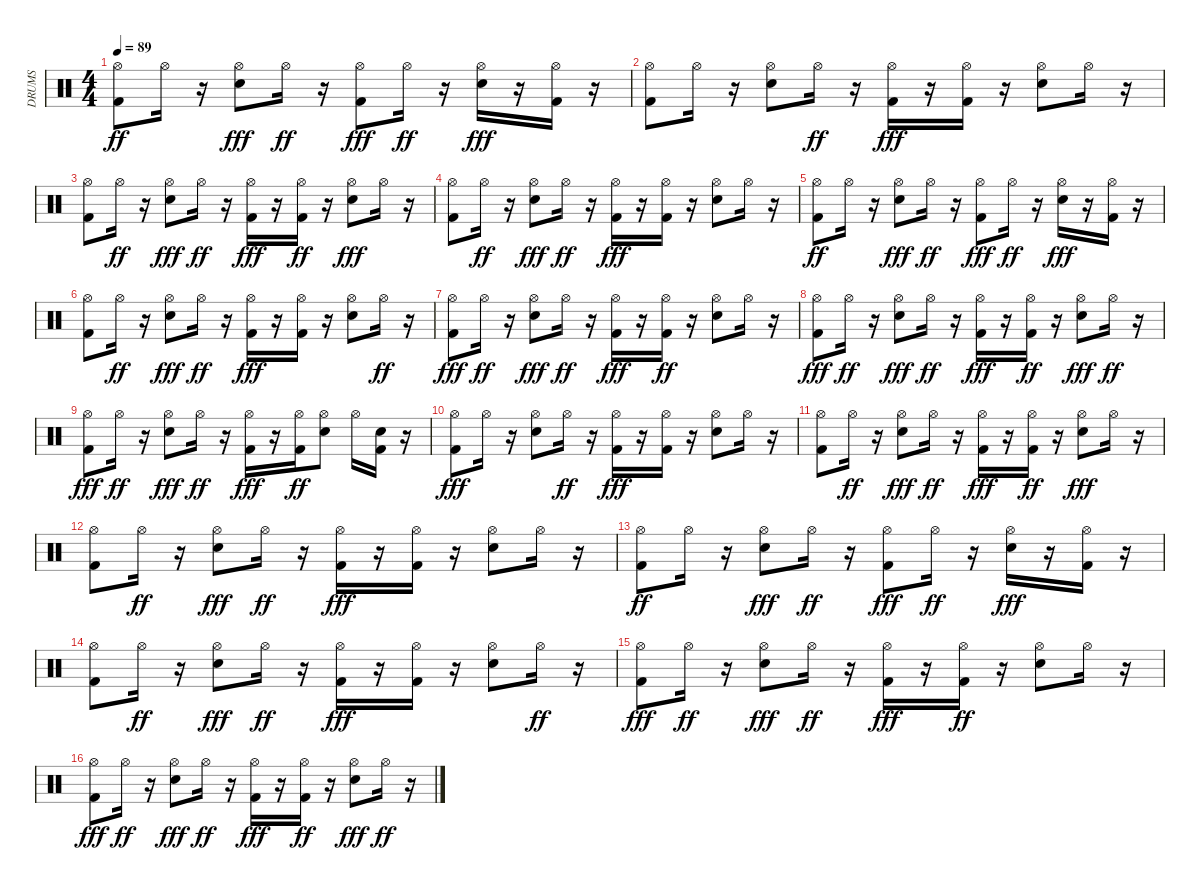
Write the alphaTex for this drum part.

\track ("DRUMS" "DRUMS") {instrument percussion}
\staff {score}
\articulation defaults
\ts (4 4)
\tempo 89
\clef neutral
\ks c
("Hi-Hat (open)" "Kick (hit) 2").8{dy ff} "Hi-Hat (open)".16 r.16 ("Electric Snare (hit)" "Hi-Hat (open)").8{dy fff} "Hi-Hat (open)".16{dy ff} r.16 ("Hi-Hat (open)" "Kick (hit) 2").8{dy fff} "Hi-Hat (open)".16{dy ff} r.16 ("Electric Snare (hit)" "Hi-Hat (open)").16{dy fff} r.16 ("Hi-Hat (open)" "Kick (hit) 2").16 r.16 |
("Hi-Hat (open)" "Kick (hit) 2").8 "Hi-Hat (open)".16 r.16 ("Electric Snare (hit)" "Hi-Hat (open)").8 "Hi-Hat (open)".16{dy ff} r.16 ("Hi-Hat (open)" "Kick (hit) 2").16{dy fff} r.16 ("Kick (hit) 2" "Hi-Hat (open)").16 r.16 ("Hi-Hat (open)" "Electric Snare (hit)").8 "Hi-Hat (open)".16 r.16 |
("Hi-Hat (open)" "Kick (hit) 2").8 "Hi-Hat (open)".16{dy ff} r.16 ("Hi-Hat (open)" "Electric Snare (hit)").8{dy fff} "Hi-Hat (open)".16{dy ff} r.16 ("Hi-Hat (open)" "Kick (hit) 2").16{dy fff} r.16 ("Kick (hit) 2" "Hi-Hat (open)").16{dy ff} r.16 ("Electric Snare (hit)" "Hi-Hat (open)").8{dy fff} "Hi-Hat (open)".16 r.16 |
("Hi-Hat (open)" "Kick (hit) 2").8 "Hi-Hat (open)".16{dy ff} r.16 ("Hi-Hat (open)" "Electric Snare (hit)").8{dy fff} "Hi-Hat (open)".16{dy ff} r.16 ("Hi-Hat (open)" "Kick (hit) 2").16{dy fff} r.16 ("Kick (hit) 2" "Hi-Hat (open)").16 r.16 ("Hi-Hat (open)" "Electric Snare (hit)").8 "Hi-Hat (open)".16 r.16 |
("Hi-Hat (open)" "Kick (hit) 2").8{dy ff} "Hi-Hat (open)".16 r.16 ("Electric Snare (hit)" "Hi-Hat (open)").8{dy fff} "Hi-Hat (open)".16{dy ff} r.16 ("Hi-Hat (open)" "Kick (hit) 2").8{dy fff} "Hi-Hat (open)".16{dy ff} r.16 ("Electric Snare (hit)" "Hi-Hat (open)").16{dy fff} r.16 ("Hi-Hat (open)" "Kick (hit) 2").16 r.16 |
("Hi-Hat (open)" "Kick (hit) 2").8 "Hi-Hat (open)".16{dy ff} r.16 ("Hi-Hat (open)" "Electric Snare (hit)").8{dy fff} "Hi-Hat (open)".16{dy ff} r.16 ("Hi-Hat (open)" "Kick (hit) 2").16{dy fff} r.16 ("Hi-Hat (open)" "Kick (hit) 2").16 r.16 ("Hi-Hat (open)" "Electric Snare (hit)").8 "Hi-Hat (open)".16{dy ff} r.16 |
("Hi-Hat (open)" "Kick (hit) 2").8{dy fff} "Hi-Hat (open)".16{dy ff} r.16 ("Electric Snare (hit)" "Hi-Hat (open)").8{dy fff} "Hi-Hat (open)".16{dy ff} r.16 ("Hi-Hat (open)" "Kick (hit) 2").16{dy fff} r.16 ("Hi-Hat (open)" "Kick (hit) 2").16{dy ff} r.16 ("Electric Snare (hit)" "Hi-Hat (open)").8 "Hi-Hat (open)".16 r.16 |
("Hi-Hat (open)" "Kick (hit) 2").8{dy fff} "Hi-Hat (open)".16{dy ff} r.16 ("Electric Snare (hit)" "Hi-Hat (open)").8{dy fff} "Hi-Hat (open)".16{dy ff} r.16 ("Hi-Hat (open)" "Kick (hit) 2").16{dy fff} r.16 ("Hi-Hat (open)" "Kick (hit) 2").16{dy ff} r.16 ("Electric Snare (hit)" "Hi-Hat (open)").8{dy fff} "Hi-Hat (open)".16{dy ff} r.16 |
("Hi-Hat (open)" "Kick (hit) 2").8{dy fff} "Hi-Hat (open)".16{dy ff} r.16 ("Electric Snare (hit)" "Hi-Hat (open)").8{dy fff} "Hi-Hat (open)".16{dy ff} r.16 ("Hi-Hat (open)" "Kick (hit) 2").16{dy fff} r.16 ("Kick (hit) 2" "Hi-Hat (open)").16{dy ff} ("Electric Snare (hit)" "Hi-Hat (open)").8 "Hi-Hat (open)".16 ("Kick (hit) 2" "Snare (hit) 2").16 r.16 |
("Hi-Hat (open)" "Kick (hit) 2").8{dy fff} "Hi-Hat (open)".16 r.16 ("Electric Snare (hit)" "Hi-Hat (open)").8 "Hi-Hat (open)".16{dy ff} r.16 ("Hi-Hat (open)" "Kick (hit) 2").16{dy fff} r.16 ("Kick (hit) 2" "Hi-Hat (open)").16 r.16 ("Hi-Hat (open)" "Electric Snare (hit)").8 "Hi-Hat (open)".16 r.16 |
("Hi-Hat (open)" "Kick (hit) 2").8 "Hi-Hat (open)".16{dy ff} r.16 ("Hi-Hat (open)" "Electric Snare (hit)").8{dy fff} "Hi-Hat (open)".16{dy ff} r.16 ("Hi-Hat (open)" "Kick (hit) 2").16{dy fff} r.16 ("Kick (hit) 2" "Hi-Hat (open)").16{dy ff} r.16 ("Electric Snare (hit)" "Hi-Hat (open)").8{dy fff} "Hi-Hat (open)".16 r.16 |
("Hi-Hat (open)" "Kick (hit) 2").8 "Hi-Hat (open)".16{dy ff} r.16 ("Hi-Hat (open)" "Electric Snare (hit)").8{dy fff} "Hi-Hat (open)".16{dy ff} r.16 ("Hi-Hat (open)" "Kick (hit) 2").16{dy fff} r.16 ("Kick (hit) 2" "Hi-Hat (open)").16 r.16 ("Hi-Hat (open)" "Electric Snare (hit)").8 "Hi-Hat (open)".16 r.16 |
("Hi-Hat (open)" "Kick (hit) 2").8{dy ff} "Hi-Hat (open)".16 r.16 ("Electric Snare (hit)" "Hi-Hat (open)").8{dy fff} "Hi-Hat (open)".16{dy ff} r.16 ("Hi-Hat (open)" "Kick (hit) 2").8{dy fff} "Hi-Hat (open)".16{dy ff} r.16 ("Electric Snare (hit)" "Hi-Hat (open)").16{dy fff} r.16 ("Hi-Hat (open)" "Kick (hit) 2").16 r.16 |
("Hi-Hat (open)" "Kick (hit) 2").8 "Hi-Hat (open)".16{dy ff} r.16 ("Hi-Hat (open)" "Electric Snare (hit)").8{dy fff} "Hi-Hat (open)".16{dy ff} r.16 ("Hi-Hat (open)" "Kick (hit) 2").16{dy fff} r.16 ("Hi-Hat (open)" "Kick (hit) 2").16 r.16 ("Hi-Hat (open)" "Electric Snare (hit)").8 "Hi-Hat (open)".16{dy ff} r.16 |
("Hi-Hat (open)" "Kick (hit) 2").8{dy fff} "Hi-Hat (open)".16{dy ff} r.16 ("Electric Snare (hit)" "Hi-Hat (open)").8{dy fff} "Hi-Hat (open)".16{dy ff} r.16 ("Hi-Hat (open)" "Kick (hit) 2").16{dy fff} r.16 ("Hi-Hat (open)" "Kick (hit) 2").16{dy ff} r.16 ("Electric Snare (hit)" "Hi-Hat (open)").8 "Hi-Hat (open)".16 r.16 |
("Hi-Hat (open)" "Kick (hit) 2").8{dy fff} "Hi-Hat (open)".16{dy ff} r.16 ("Electric Snare (hit)" "Hi-Hat (open)").8{dy fff} "Hi-Hat (open)".16{dy ff} r.16 ("Hi-Hat (open)" "Kick (hit) 2").16{dy fff} r.16 ("Hi-Hat (open)" "Kick (hit) 2").16{dy ff} r.16 ("Electric Snare (hit)" "Hi-Hat (open)").8{dy fff} "Hi-Hat (open)".16{dy ff} r.16
